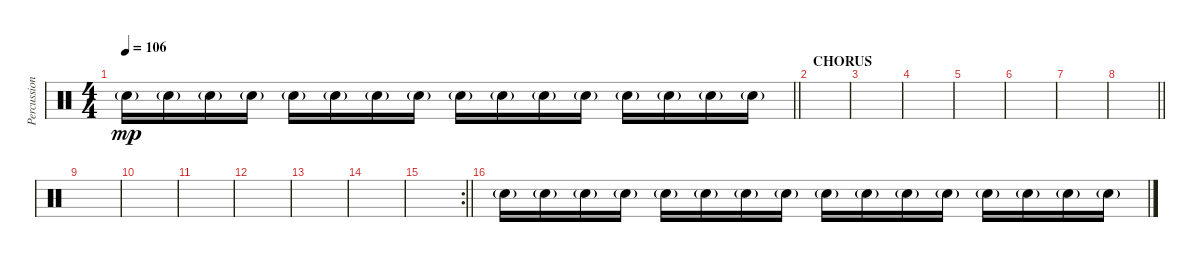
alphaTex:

\track ("Percussion" "Percussion") {instrument percussion}
\staff {score}
\articulation defaults
\ts (4 4)
\tempo 106
\clef neutral
\barLineRight lightlight
\ks c "Electric Snare (hit)"{g}.16{dy mp} "Electric Snare (hit)"{g}.16 "Electric Snare (hit)"{g}.16 "Electric Snare (hit)"{g}.16 "Electric Snare (hit)"{g}.16 "Electric Snare (hit)"{g}.16 "Electric Snare (hit)"{g}.16 "Electric Snare (hit)"{g}.16 "Electric Snare (hit)"{g}.16 "Electric Snare (hit)"{g}.16 "Electric Snare (hit)"{g}.16 "Electric Snare (hit)"{g}.16 "Electric Snare (hit)"{g}.16 "Electric Snare (hit)"{g}.16 "Electric Snare (hit)"{g}.16 "Electric Snare (hit)"{g}.16
|
\section ("" "CHORUS")
|
|
|
|
|
|
\barLineRight lightlight
|
|
|
|
|
|
|
\rc 2
\barLineRight lightlight
|
"Electric Snare (hit)"{g}.16 "Electric Snare (hit)"{g}.16 "Electric Snare (hit)"{g}.16 "Electric Snare (hit)"{g}.16 "Electric Snare (hit)"{g}.16 "Electric Snare (hit)"{g}.16 "Electric Snare (hit)"{g}.16 "Electric Snare (hit)"{g}.16 "Electric Snare (hit)"{g}.16 "Electric Snare (hit)"{g}.16 "Electric Snare (hit)"{g}.16 "Electric Snare (hit)"{g}.16 "Electric Snare (hit)"{g}.16 "Electric Snare (hit)"{g}.16 "Electric Snare (hit)"{g}.16 "Electric Snare (hit)"{g}.16
